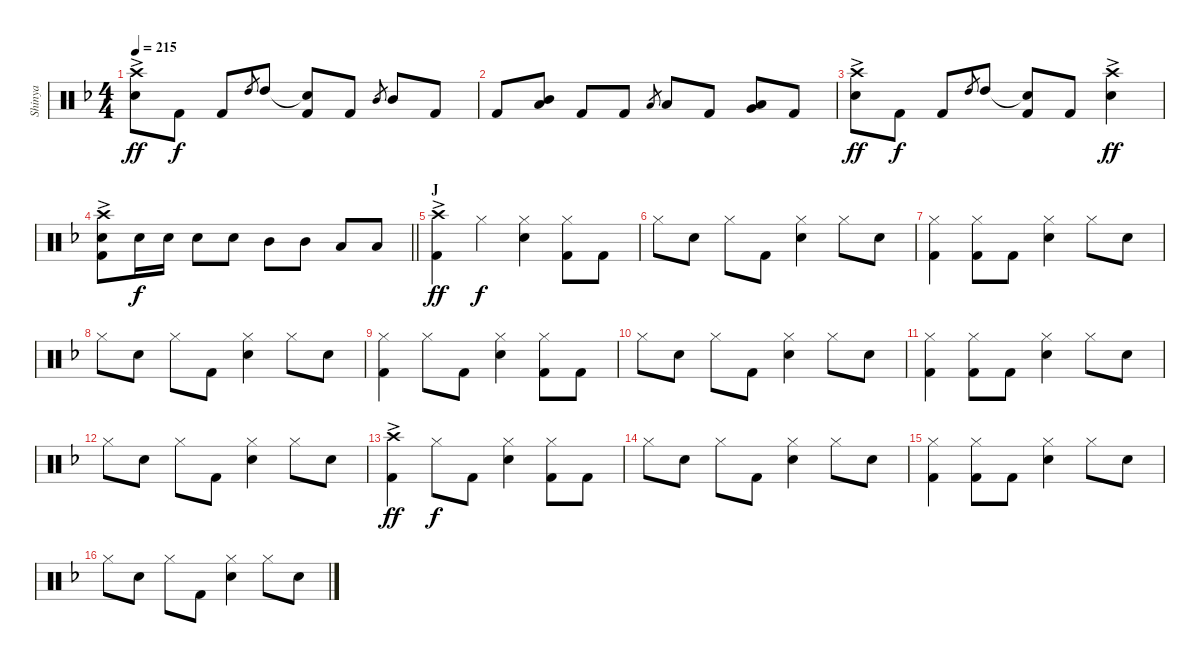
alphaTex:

\track ("Shinya" "Shinya") {instrument percussion}
\staff {score}
\articulation defaults
\ts (4 4)
\tempo 215
\clef neutral
\ks f
("Crash high (hit)"{ac} "Snare (hit) 2").8{dy ff} "Kick (hit) 2".8{dy f} "Kick (hit) 2".8 "High Tom (hit)".8{gr} "High Tom (hit)".8 ("Snare (hit)"{t} "Kick (hit) 2").8 "Kick (hit) 2".8 "Mid Tom (hit)".8{gr} "Mid Tom (hit)".8 "Kick (hit) 2".8 |
"Kick (hit) 2".8 ("Mid Tom (hit)" "Low Tom (hit)").8 "Kick (hit) 2".8 "Kick (hit) 2".8 "Low Tom (hit)".8{gr} "Low Tom (hit)".8 "Kick (hit) 2".8 ("Low Tom (hit)" "Very Low Tom (hit)").8 "Kick (hit) 2".8 |
("Crash high (hit)"{ac} "Snare (hit) 2").8{dy ff} "Kick (hit) 2".8{dy f} "Kick (hit) 2".8 "High Tom (hit)".8{gr} "High Tom (hit)".8 ("Snare (hit)"{t} "Kick (hit) 2").8 "Kick (hit) 2".8 ("Crash high (hit)"{ac} "Snare (hit) 2").4{dy ff} |
\barLineRight lightlight
("Crash high (hit)"{ac} "Snare (hit) 2" "Kick (hit) 2").8 "Snare (hit) 2".16{dy f} "Snare (hit) 2".16 "Snare (hit) 2".8 "Snare (hit) 2".8 "Mid Tom (hit)".8 "Mid Tom (hit)".8 "Low Tom (hit)".8 "Low Tom (hit)".8 |
\section ("" "J")
("Crash high (hit)"{ac} "Kick (hit) 2").4{dy ff} "Hi-Hat (closed)".4{dy f} ("Hi-Hat (closed)" "Snare (hit) 2").4 ("Hi-Hat (closed)" "Kick (hit) 2").8 "Kick (hit) 2".8 |
"Hi-Hat (closed)".8 "Snare (hit) 2".8 "Hi-Hat (closed)".8 "Kick (hit) 2".8 ("Hi-Hat (closed)" "Snare (hit) 2").4 "Hi-Hat (closed)".8 "Snare (hit) 2".8 |
("Hi-Hat (closed)" "Kick (hit) 2").4 ("Hi-Hat (closed)" "Kick (hit) 2").8 "Kick (hit) 2".8 ("Hi-Hat (closed)" "Snare (hit) 2").4 "Hi-Hat (closed)".8 "Snare (hit) 2".8 |
"Hi-Hat (closed)".8 "Snare (hit) 2".8 "Hi-Hat (closed)".8 "Kick (hit) 2".8 ("Hi-Hat (closed)" "Snare (hit) 2").4 "Hi-Hat (closed)".8 "Snare (hit) 2".8 |
("Hi-Hat (closed)" "Kick (hit) 2").4 "Hi-Hat (closed)".8 "Kick (hit) 2".8 ("Hi-Hat (closed)" "Snare (hit) 2").4 ("Hi-Hat (closed)" "Kick (hit) 2").8 "Kick (hit) 2".8 |
"Hi-Hat (closed)".8 "Snare (hit) 2".8 "Hi-Hat (closed)".8 "Kick (hit) 2".8 ("Hi-Hat (closed)" "Snare (hit) 2").4 "Hi-Hat (closed)".8 "Snare (hit) 2".8 |
("Hi-Hat (closed)" "Kick (hit) 2").4 ("Hi-Hat (closed)" "Kick (hit) 2").8 "Kick (hit) 2".8 ("Hi-Hat (closed)" "Snare (hit) 2").4 "Hi-Hat (closed)".8 "Snare (hit) 2".8 |
"Hi-Hat (closed)".8 "Snare (hit) 2".8 "Hi-Hat (closed)".8 "Kick (hit) 2".8 ("Hi-Hat (closed)" "Snare (hit) 2").4 "Hi-Hat (closed)".8 "Snare (hit) 2".8 |
("Crash high (hit)"{ac} "Kick (hit) 2").4{dy ff} "Hi-Hat (closed)".8{dy f} "Kick (hit) 2".8 ("Hi-Hat (closed)" "Snare (hit) 2").4 ("Hi-Hat (closed)" "Kick (hit) 2").8 "Kick (hit) 2".8 |
"Hi-Hat (closed)".8 "Snare (hit) 2".8 "Hi-Hat (closed)".8 "Kick (hit) 2".8 ("Hi-Hat (closed)" "Snare (hit) 2").4 "Hi-Hat (closed)".8 "Snare (hit) 2".8 |
("Hi-Hat (closed)" "Kick (hit) 2").4 ("Hi-Hat (closed)" "Kick (hit) 2").8 "Kick (hit) 2".8 ("Hi-Hat (closed)" "Snare (hit) 2").4 "Hi-Hat (closed)".8 "Snare (hit) 2".8 |
"Hi-Hat (closed)".8 "Snare (hit) 2".8 "Hi-Hat (closed)".8 "Kick (hit) 2".8 ("Hi-Hat (closed)" "Snare (hit) 2").4 "Hi-Hat (closed)".8 "Snare (hit) 2".8
